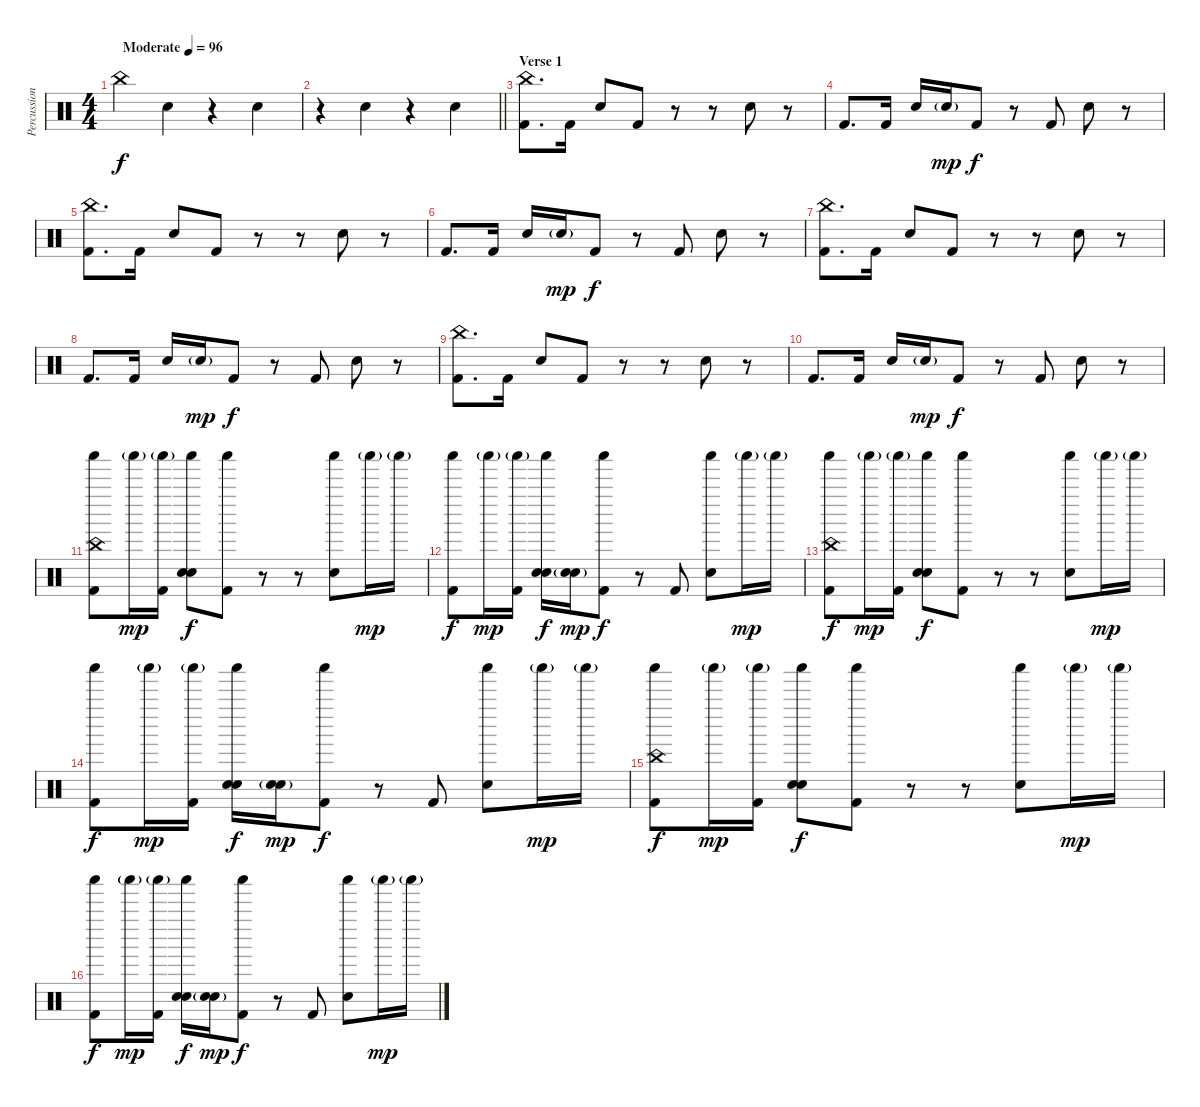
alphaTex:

\track ("Percussion" "Percussion") {instrument percussion}
\staff {score}
\articulation defaults
\ts (4 4)
\tempo (96 "Moderate")
\clef neutral
\ks c "China (hit)".4{dy f} "Electric Snare (hit)".4
r.4 "Electric Snare (hit)".4 |
\barLineRight lightlight
r.4 "Electric Snare (hit)".4 r.4 "Electric Snare (hit)".4 |
\section ("" "Verse 1")
("China (hit)" "Kick (hit) 2").8{d} "Kick (hit) 2".16 "Electric Snare (hit)".8 "Kick (hit) 2".8 r.8 r.8 "Electric Snare (hit)".8 r.8 |
"Kick (hit) 2".8{d} "Kick (hit) 2".16 "Electric Snare (hit)".16 "Electric Snare (hit)"{g}.16{dy mp} "Kick (hit) 2".8{dy f} r.8 "Kick (hit) 2".8 "Electric Snare (hit)".8 r.8 |
("China (hit)" "Kick (hit) 2").8{d} "Kick (hit) 2".16 "Electric Snare (hit)".8 "Kick (hit) 2".8 r.8 r.8 "Electric Snare (hit)".8 r.8 |
"Kick (hit) 2".8{d} "Kick (hit) 2".16 "Electric Snare (hit)".16 "Electric Snare (hit)"{g}.16{dy mp} "Kick (hit) 2".8{dy f} r.8 "Kick (hit) 2".8 "Electric Snare (hit)".8 r.8 |
("China (hit)" "Kick (hit) 2").8{d} "Kick (hit) 2".16 "Electric Snare (hit)".8 "Kick (hit) 2".8 r.8 r.8 "Electric Snare (hit)".8 r.8 |
"Kick (hit) 2".8{d} "Kick (hit) 2".16 "Electric Snare (hit)".16 "Electric Snare (hit)"{g}.16{dy mp} "Kick (hit) 2".8{dy f} r.8 "Kick (hit) 2".8 "Electric Snare (hit)".8 r.8 |
("China (hit)" "Kick (hit) 2").8{d} "Kick (hit) 2".16 "Electric Snare (hit)".8 "Kick (hit) 2".8 r.8 r.8 "Electric Snare (hit)".8 r.8 |
"Kick (hit) 2".8{d} "Kick (hit) 2".16 "Electric Snare (hit)".16 "Electric Snare (hit)"{g}.16{dy mp} "Kick (hit) 2".8{dy f} r.8 "Kick (hit) 2".8 "Electric Snare (hit)".8 r.8 |
("China (hit)" "Shaker (hit)" "Kick (hit) 2").8 "Shaker (hit)"{g}.16{dy mp} ("Shaker (hit)"{g} "Kick (hit) 2").16 ("Shaker (hit)" "Hand Clap (hit)" "Electric Snare (hit)").8{dy f} ("Shaker (hit)" "Kick (hit) 2").8 r.8 r.8 ("Shaker (hit)" "Electric Snare (hit)").8 "Shaker (hit)"{g}.16{dy mp} "Shaker (hit)"{g}.16 |
("Shaker (hit)" "Kick (hit) 2").8{dy f} "Shaker (hit)"{g}.16{dy mp} ("Shaker (hit)"{g} "Kick (hit) 2").16 ("Shaker (hit)" "Hand Clap (hit)" "Electric Snare (hit)").16{dy f} ("Hand Clap (hit)"{g} "Electric Snare (hit)"{g}).16{dy mp} ("Shaker (hit)" "Kick (hit) 2").8{dy f} r.8 "Kick (hit) 2".8 ("Shaker (hit)" "Electric Snare (hit)").8 "Shaker (hit)"{g}.16{dy mp} "Shaker (hit)"{g}.16 |
("China (hit)" "Shaker (hit)" "Kick (hit) 2").8{dy f} "Shaker (hit)"{g}.16{dy mp} ("Shaker (hit)"{g} "Kick (hit) 2").16 ("Shaker (hit)" "Hand Clap (hit)" "Electric Snare (hit)").8{dy f} ("Shaker (hit)" "Kick (hit) 2").8 r.8 r.8 ("Shaker (hit)" "Electric Snare (hit)").8 "Shaker (hit)"{g}.16{dy mp} "Shaker (hit)"{g}.16 |
("Shaker (hit)" "Kick (hit) 2").8{dy f} "Shaker (hit)"{g}.16{dy mp} ("Shaker (hit)"{g} "Kick (hit) 2").16 ("Shaker (hit)" "Hand Clap (hit)" "Electric Snare (hit)").16{dy f} ("Hand Clap (hit)"{g} "Electric Snare (hit)"{g}).16{dy mp} ("Shaker (hit)" "Kick (hit) 2").8{dy f} r.8 "Kick (hit) 2".8 ("Shaker (hit)" "Electric Snare (hit)").8 "Shaker (hit)"{g}.16{dy mp} "Shaker (hit)"{g}.16 |
("China (hit)" "Shaker (hit)" "Kick (hit) 2").8{dy f} "Shaker (hit)"{g}.16{dy mp} ("Shaker (hit)"{g} "Kick (hit) 2").16 ("Shaker (hit)" "Hand Clap (hit)" "Electric Snare (hit)").8{dy f} ("Shaker (hit)" "Kick (hit) 2").8 r.8 r.8 ("Shaker (hit)" "Electric Snare (hit)").8 "Shaker (hit)"{g}.16{dy mp} "Shaker (hit)"{g}.16 |
("Shaker (hit)" "Kick (hit) 2").8{dy f} "Shaker (hit)"{g}.16{dy mp} ("Shaker (hit)"{g} "Kick (hit) 2").16 ("Shaker (hit)" "Hand Clap (hit)" "Electric Snare (hit)").16{dy f} ("Hand Clap (hit)"{g} "Electric Snare (hit)"{g}).16{dy mp} ("Shaker (hit)" "Kick (hit) 2").8{dy f} r.8 "Kick (hit) 2".8 ("Shaker (hit)" "Electric Snare (hit)").8 "Shaker (hit)"{g}.16{dy mp} "Shaker (hit)"{g}.16
